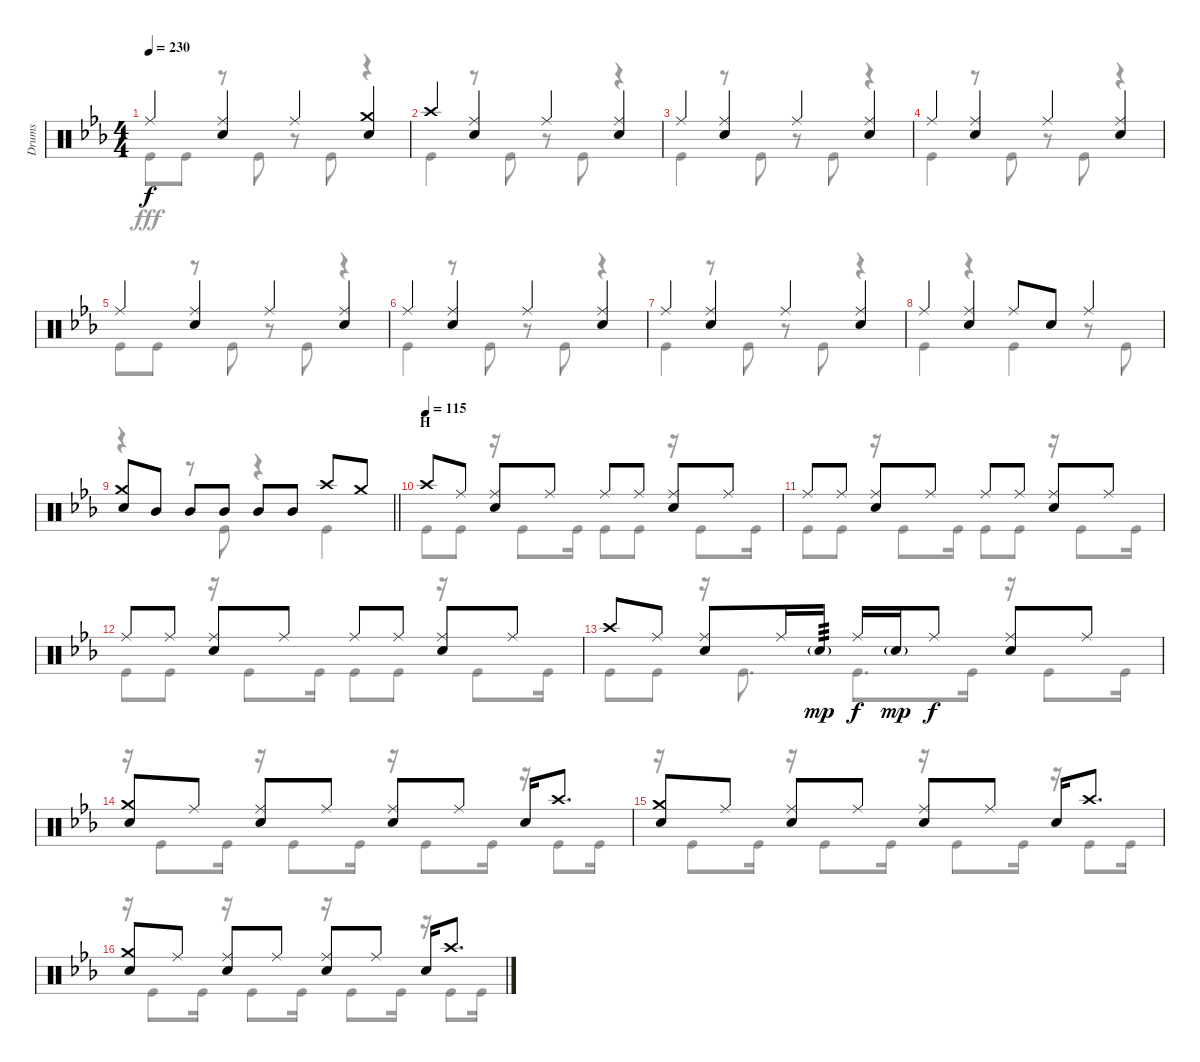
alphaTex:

\track ("Drums" "Drums") {instrument percussion}
\staff {score}
\articulation defaults
\voice
\ts (4 4)
\tempo 230
\clef neutral
\ks eb "Ride (middle)".4{dy f}
("Ride (middle)" "Snare (hit) 2").4 "Ride (middle)".4 ("Crash medium (hit)" "Snare (hit) 2").4 |
"Crash high (hit)".4 ("Ride (middle)" "Snare (hit) 2").4 "Ride (middle)".4 ("Ride (middle)" "Snare (hit) 2").4 |
"Ride (middle)".4 ("Ride (middle)" "Snare (hit) 2").4 "Ride (middle)".4 ("Ride (middle)" "Snare (hit) 2").4 |
"Ride (middle)".4 ("Ride (middle)" "Snare (hit) 2").4 "Ride (middle)".4 ("Ride (middle)" "Snare (hit) 2").4 |
"Ride (middle)".4 ("Ride (middle)" "Snare (hit) 2").4 "Ride (middle)".4 ("Ride (middle)" "Snare (hit) 2").4 |
"Ride (middle)".4 ("Ride (middle)" "Snare (hit) 2").4 "Ride (middle)".4 ("Ride (middle)" "Snare (hit) 2").4 |
"Ride (middle)".4 ("Ride (middle)" "Snare (hit) 2").4 "Ride (middle)".4 ("Ride (middle)" "Snare (hit) 2").4 |
"Ride (middle)".4 ("Ride (middle)" "Snare (hit) 2").4 "Ride (middle)".8 "Snare (hit) 2".8 "Ride (middle)".4 |
\barLineRight lightlight
("Crash medium (hit)" "Snare (hit) 2").8 "Mid Tom (hit)".8 "Mid Tom (hit)".8 "Mid Tom (hit)".8 "Mid Tom (hit)".8 "Mid Tom (hit)".8 "Crash high (hit)".8 "Crash medium (hit)".8 |
\section ("" "H")
\tempo (115)
"Crash high (hit)".8 "Ride (middle)".8 ("Ride (middle)" "Snare (hit) 2").8 "Ride (middle)".8 "Ride (middle)".8 "Ride (middle)".8 ("Ride (middle)" "Snare (hit) 2").8 "Ride (middle)".8 |
"Ride (middle)".8 "Ride (middle)".8 ("Ride (middle)" "Snare (hit) 2").8 "Ride (middle)".8 "Ride (middle)".8 "Ride (middle)".8 ("Ride (middle)" "Snare (hit) 2").8 "Ride (middle)".8 |
"Ride (middle)".8 "Ride (middle)".8 ("Ride (middle)" "Snare (hit) 2").8 "Ride (middle)".8 "Ride (middle)".8 "Ride (middle)".8 ("Ride (middle)" "Snare (hit) 2").8 "Ride (middle)".8 |
"Crash high (hit)".8 "Ride (middle)".8 ("Ride (middle)" "Snare (hit) 2").8 "Ride (middle)".16 "Snare (hit) 2"{g}.16{tp 3 dy mp} "Ride (middle)".16{dy f} "Snare (hit) 2"{g}.16{dy mp} "Ride (middle)".8{dy f} ("Ride (middle)" "Snare (hit) 2").8 "Ride (middle)".8 |
("Crash medium (hit)" "Snare (hit) 2").8 "Ride (middle)".8 ("Ride (middle)" "Snare (hit) 2").8 "Ride (middle)".8 ("Ride (middle)" "Snare (hit) 2").8 "Ride (middle)".8 "Snare (hit) 2".16 "Crash high (hit)".8{d} |
("Crash medium (hit)" "Snare (hit) 2").8 "Ride (middle)".8 ("Ride (middle)" "Snare (hit) 2").8 "Ride (middle)".8 ("Ride (middle)" "Snare (hit) 2").8 "Ride (middle)".8 "Snare (hit) 2".16 "Crash high (hit)".8{d} |
("Crash medium (hit)" "Snare (hit) 2").8 "Ride (middle)".8 ("Ride (middle)" "Snare (hit) 2").8 "Ride (middle)".8 ("Ride (middle)" "Snare (hit) 2").8 "Ride (middle)".8 "Snare (hit) 2".16 "Crash high (hit)".8{d}
\voice
\clef neutral
\ottava regular
\simile none
\ks eb "Kick (hit)".8{dy fff} "Kick (hit)".8
r.8 "Kick (hit)".8 r.8 "Kick (hit)".8 r.4 |
"Kick (hit)".4 r.8 "Kick (hit)".8 r.8 "Kick (hit)".8 r.4 |
"Kick (hit)".4 r.8 "Kick (hit)".8 r.8 "Kick (hit)".8 r.4 |
"Kick (hit)".4 r.8 "Kick (hit)".8 r.8 "Kick (hit)".8 r.4 |
"Kick (hit)".8 "Kick (hit)".8 r.8 "Kick (hit)".8 r.8 "Kick (hit)".8 r.4 |
"Kick (hit)".4 r.8 "Kick (hit)".8 r.8 "Kick (hit)".8 r.4 |
"Kick (hit)".4 r.8 "Kick (hit)".8 r.8 "Kick (hit)".8 r.4 |
"Kick (hit)".4 r.4 "Kick (hit)".4 r.8 "Kick (hit)".8 |
\barLineRight lightlight
r.4 r.8 "Kick (hit)".8 r.4 "Kick (hit)".4 |
"Kick (hit)".8 "Kick (hit)".8 r.16 "Kick (hit)".8 "Kick (hit)".16 "Kick (hit)".8 "Kick (hit)".8 r.16 "Kick (hit)".8 "Kick (hit)".16 |
"Kick (hit)".8 "Kick (hit)".8 r.16 "Kick (hit)".8 "Kick (hit)".16 "Kick (hit)".8 "Kick (hit)".8 r.16 "Kick (hit)".8 "Kick (hit)".16 |
"Kick (hit)".8 "Kick (hit)".8 r.16 "Kick (hit)".8 "Kick (hit)".16 "Kick (hit)".8 "Kick (hit)".8 r.16 "Kick (hit)".8 "Kick (hit)".16 |
"Kick (hit)".8 "Kick (hit)".8 r.16 "Kick (hit)".8{d} "Kick (hit)".8{d} "Kick (hit)".16 r.16 "Kick (hit)".8 "Kick (hit)".16 |
r.16 "Kick (hit)".8 "Kick (hit)".16 r.16 "Kick (hit)".8 "Kick (hit)".16 r.16 "Kick (hit)".8 "Kick (hit)".16 r.16 "Kick (hit)".8 "Kick (hit)".16 |
r.16 "Kick (hit)".8 "Kick (hit)".16 r.16 "Kick (hit)".8 "Kick (hit)".16 r.16 "Kick (hit)".8 "Kick (hit)".16 r.16 "Kick (hit)".8 "Kick (hit)".16 |
r.16 "Kick (hit)".8 "Kick (hit)".16 r.16 "Kick (hit)".8 "Kick (hit)".16 r.16 "Kick (hit)".8 "Kick (hit)".16 r.16 "Kick (hit)".8 "Kick (hit)".16
